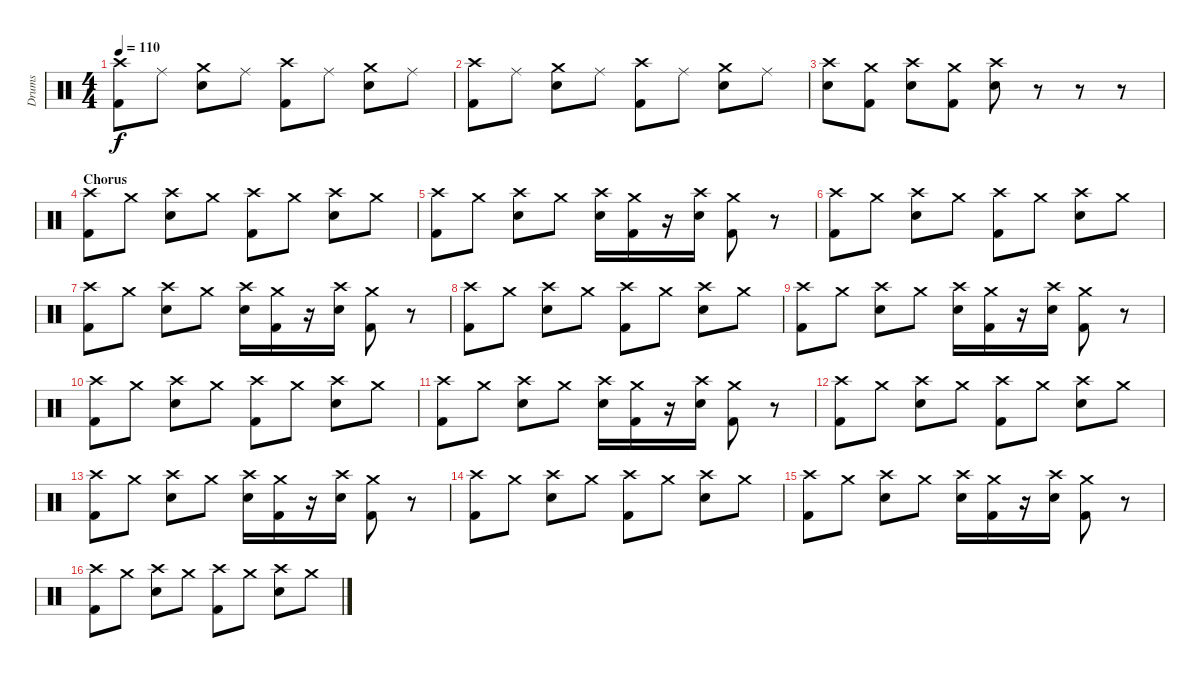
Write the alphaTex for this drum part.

\track ("Drums" "Drums") {instrument percussion}
\staff {score}
\articulation defaults
\ts (4 4)
\tempo 110
\clef neutral
\ks c
("Crash high (hit)" "Kick (hit) 2").8{dy f} "Ride (middle)".8 ("Crash medium (hit)" "Electric Snare (hit)").8 "Ride (middle)".8 ("Crash high (hit)" "Kick (hit) 2").8 "Ride (middle)".8 ("Crash medium (hit)" "Electric Snare (hit)").8 "Ride (middle)".8 |
("Crash high (hit)" "Kick (hit) 2").8 "Ride (middle)".8 ("Crash medium (hit)" "Electric Snare (hit)").8 "Ride (middle)".8 ("Crash high (hit)" "Kick (hit) 2").8 "Ride (middle)".8 ("Crash medium (hit)" "Electric Snare (hit)").8 "Ride (middle)".8 |
("Crash high (hit)" "Electric Snare (hit)").8 ("Crash medium (hit)" "Kick (hit) 2").8 ("Crash high (hit)" "Electric Snare (hit)").8 ("Crash medium (hit)" "Kick (hit) 2").8 ("Crash high (hit)" "Electric Snare (hit)").8 r.8 r.8 r.8 |
\section ("" "Chorus")
("Crash high (hit)" "Kick (hit) 2").8 "Crash medium (hit)".8 ("Crash high (hit)" "Electric Snare (hit)").8 "Crash medium (hit)".8 ("Crash high (hit)" "Kick (hit) 2").8 "Crash medium (hit)".8 ("Crash high (hit)" "Electric Snare (hit)").8 "Crash medium (hit)".8 |
("Crash high (hit)" "Kick (hit) 2").8 "Crash medium (hit)".8 ("Crash high (hit)" "Electric Snare (hit)").8 "Crash medium (hit)".8 ("Crash high (hit)" "Electric Snare (hit)").16 ("Crash medium (hit)" "Kick (hit) 2").16 r.16 ("Crash high (hit)" "Electric Snare (hit)").16 ("Crash medium (hit)" "Kick (hit) 2").8 r.8 |
("Crash high (hit)" "Kick (hit) 2").8 "Crash medium (hit)".8 ("Crash high (hit)" "Electric Snare (hit)").8 "Crash medium (hit)".8 ("Crash high (hit)" "Kick (hit) 2").8 "Crash medium (hit)".8 ("Crash high (hit)" "Electric Snare (hit)").8 "Crash medium (hit)".8 |
("Crash high (hit)" "Kick (hit) 2").8 "Crash medium (hit)".8 ("Crash high (hit)" "Electric Snare (hit)").8 "Crash medium (hit)".8 ("Crash high (hit)" "Electric Snare (hit)").16 ("Crash medium (hit)" "Kick (hit) 2").16 r.16 ("Crash high (hit)" "Electric Snare (hit)").16 ("Crash medium (hit)" "Kick (hit) 2").8 r.8 |
("Crash high (hit)" "Kick (hit) 2").8 "Crash medium (hit)".8 ("Crash high (hit)" "Electric Snare (hit)").8 "Crash medium (hit)".8 ("Crash high (hit)" "Kick (hit) 2").8 "Crash medium (hit)".8 ("Crash high (hit)" "Electric Snare (hit)").8 "Crash medium (hit)".8 |
("Crash high (hit)" "Kick (hit) 2").8 "Crash medium (hit)".8 ("Crash high (hit)" "Electric Snare (hit)").8 "Crash medium (hit)".8 ("Crash high (hit)" "Electric Snare (hit)").16 ("Crash medium (hit)" "Kick (hit) 2").16 r.16 ("Crash high (hit)" "Electric Snare (hit)").16 ("Crash medium (hit)" "Kick (hit) 2").8 r.8 |
("Crash high (hit)" "Kick (hit) 2").8 "Crash medium (hit)".8 ("Crash high (hit)" "Electric Snare (hit)").8 "Crash medium (hit)".8 ("Crash high (hit)" "Kick (hit) 2").8 "Crash medium (hit)".8 ("Crash high (hit)" "Electric Snare (hit)").8 "Crash medium (hit)".8 |
("Crash high (hit)" "Kick (hit) 2").8 "Crash medium (hit)".8 ("Crash high (hit)" "Electric Snare (hit)").8 "Crash medium (hit)".8 ("Crash high (hit)" "Electric Snare (hit)").16 ("Crash medium (hit)" "Kick (hit) 2").16 r.16 ("Crash high (hit)" "Electric Snare (hit)").16 ("Crash medium (hit)" "Kick (hit) 2").8 r.8 |
("Crash high (hit)" "Kick (hit) 2").8 "Crash medium (hit)".8 ("Crash high (hit)" "Electric Snare (hit)").8 "Crash medium (hit)".8 ("Crash high (hit)" "Kick (hit) 2").8 "Crash medium (hit)".8 ("Crash high (hit)" "Electric Snare (hit)").8 "Crash medium (hit)".8 |
("Crash high (hit)" "Kick (hit) 2").8 "Crash medium (hit)".8 ("Crash high (hit)" "Electric Snare (hit)").8 "Crash medium (hit)".8 ("Crash high (hit)" "Electric Snare (hit)").16 ("Crash medium (hit)" "Kick (hit) 2").16 r.16 ("Crash high (hit)" "Electric Snare (hit)").16 ("Crash medium (hit)" "Kick (hit) 2").8 r.8 |
("Crash high (hit)" "Kick (hit) 2").8 "Crash medium (hit)".8 ("Crash high (hit)" "Electric Snare (hit)").8 "Crash medium (hit)".8 ("Crash high (hit)" "Kick (hit) 2").8 "Crash medium (hit)".8 ("Crash high (hit)" "Electric Snare (hit)").8 "Crash medium (hit)".8 |
("Crash high (hit)" "Kick (hit) 2").8 "Crash medium (hit)".8 ("Crash high (hit)" "Electric Snare (hit)").8 "Crash medium (hit)".8 ("Crash high (hit)" "Electric Snare (hit)").16 ("Crash medium (hit)" "Kick (hit) 2").16 r.16 ("Crash high (hit)" "Electric Snare (hit)").16 ("Crash medium (hit)" "Kick (hit) 2").8 r.8 |
("Crash high (hit)" "Kick (hit) 2").8 "Crash medium (hit)".8 ("Crash high (hit)" "Electric Snare (hit)").8 "Crash medium (hit)".8 ("Crash high (hit)" "Kick (hit) 2").8 "Crash medium (hit)".8 ("Crash high (hit)" "Electric Snare (hit)").8 "Crash medium (hit)".8
